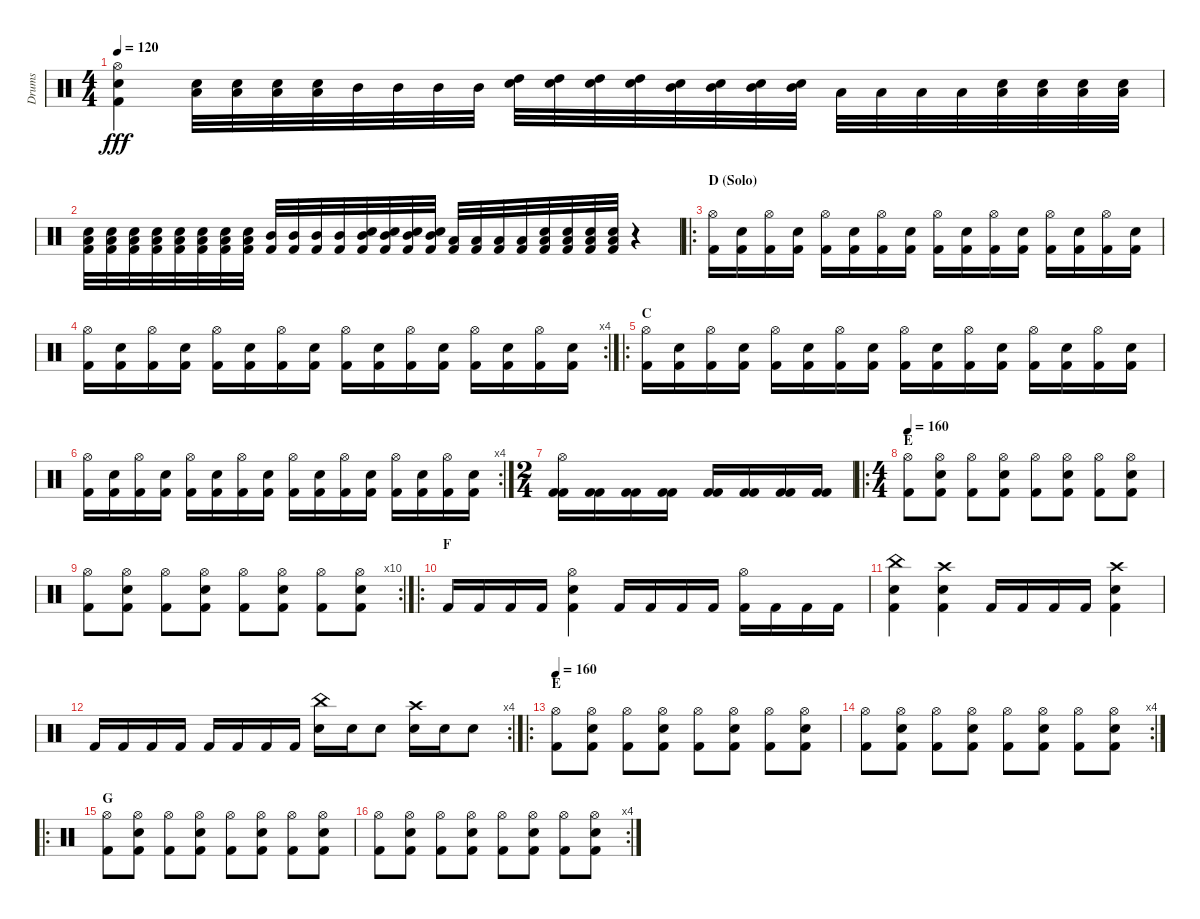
\track ("Drums" "Drums") {instrument percussion}
\staff {score}
\articulation defaults
\ts (4 4)
\tempo 120
\clef neutral
\ks c
("Hi-Hat (open)" "Electric Snare (hit)" "Kick (hit) 2").4{dy fff} ("Low Tom (hit)" "Electric Snare (hit)").32 ("Low Tom (hit)" "Electric Snare (hit)").32 ("Low Tom (hit)" "Electric Snare (hit)").32 ("Low Tom (hit)" "Electric Snare (hit)").32 "Mid Tom (hit)".32 "Mid Tom (hit)".32 "Mid Tom (hit)".32 "Mid Tom (hit)".32 ("High Tom (hit)" "Electric Snare (hit)").32 ("High Tom (hit)" "Electric Snare (hit)").32 ("High Tom (hit)" "Electric Snare (hit)").32 ("High Tom (hit)" "Electric Snare (hit)").32 ("Mid Tom (hit)" "Electric Snare (hit)").32 ("Mid Tom (hit)" "Electric Snare (hit)").32 ("Mid Tom (hit)" "Electric Snare (hit)").32 ("Mid Tom (hit)" "Electric Snare (hit)").32 "Low Tom (hit)".32 "Low Tom (hit)".32 "Low Tom (hit)".32 "Low Tom (hit)".32 ("Low Tom (hit)" "Electric Snare (hit)").32 ("Low Tom (hit)" "Electric Snare (hit)").32 ("Low Tom (hit)" "Electric Snare (hit)").32 ("Low Tom (hit)" "Electric Snare (hit)").32 |
("Low Tom (hit)" "Electric Snare (hit)" "Kick (hit) 2").32 ("Low Tom (hit)" "Electric Snare (hit)" "Kick (hit) 2").32 ("Low Tom (hit)" "Electric Snare (hit)" "Kick (hit) 2").32 ("Low Tom (hit)" "Electric Snare (hit)" "Kick (hit) 2").32 ("Low Tom (hit)" "Electric Snare (hit)" "Kick (hit) 2").32 ("Low Tom (hit)" "Electric Snare (hit)" "Kick (hit) 2").32 ("Low Tom (hit)" "Electric Snare (hit)" "Kick (hit) 2").32 ("Low Tom (hit)" "Electric Snare (hit)" "Kick (hit) 2").32 ("Mid Tom (hit)" "Kick (hit) 2").32 ("Mid Tom (hit)" "Kick (hit) 2").32 ("Mid Tom (hit)" "Kick (hit) 2").32 ("Mid Tom (hit)" "Kick (hit) 2").32 ("Mid Tom (hit)" "Electric Snare (hit)" "Kick (hit) 2").32 ("Mid Tom (hit)" "Electric Snare (hit)" "Kick (hit) 2").32 ("Mid Tom (hit)" "Electric Snare (hit)" "Kick (hit) 2").32 ("Mid Tom (hit)" "Electric Snare (hit)" "Kick (hit) 2").32 ("Low Floor Tom (hit)" "Kick (hit) 2").32 ("Low Floor Tom (hit)" "Kick (hit) 2").32 ("Low Floor Tom (hit)" "Kick (hit) 2").32 ("Low Floor Tom (hit)" "Kick (hit) 2").32 ("Low Floor Tom (hit)" "Electric Snare (hit)" "Kick (hit) 2").32 ("Low Floor Tom (hit)" "Electric Snare (hit)" "Kick (hit) 2").32 ("Low Floor Tom (hit)" "Electric Snare (hit)" "Kick (hit) 2").32 ("Low Floor Tom (hit)" "Electric Snare (hit)" "Kick (hit) 2").32 r.4 |
\ro
\section ("" "D (Solo)")
("Hi-Hat (open)" "Kick (hit) 2").16 ("Electric Snare (hit)" "Kick (hit) 2").16 ("Hi-Hat (open)" "Kick (hit) 2").16 ("Electric Snare (hit)" "Kick (hit) 2").16 ("Hi-Hat (open)" "Kick (hit) 2").16 ("Electric Snare (hit)" "Kick (hit) 2").16 ("Hi-Hat (open)" "Kick (hit) 2").16 ("Electric Snare (hit)" "Kick (hit) 2").16 ("Hi-Hat (open)" "Kick (hit) 2").16 ("Electric Snare (hit)" "Kick (hit) 2").16 ("Hi-Hat (open)" "Kick (hit) 2").16 ("Electric Snare (hit)" "Kick (hit) 2").16 ("Hi-Hat (open)" "Kick (hit) 2").16 ("Electric Snare (hit)" "Kick (hit) 2").16 ("Hi-Hat (open)" "Kick (hit) 2").16 ("Electric Snare (hit)" "Kick (hit) 2").16 |
\rc 4
("Hi-Hat (open)" "Kick (hit) 2").16 ("Electric Snare (hit)" "Kick (hit) 2").16 ("Hi-Hat (open)" "Kick (hit) 2").16 ("Electric Snare (hit)" "Kick (hit) 2").16 ("Hi-Hat (open)" "Kick (hit) 2").16 ("Electric Snare (hit)" "Kick (hit) 2").16 ("Hi-Hat (open)" "Kick (hit) 2").16 ("Electric Snare (hit)" "Kick (hit) 2").16 ("Hi-Hat (open)" "Kick (hit) 2").16 ("Electric Snare (hit)" "Kick (hit) 2").16 ("Hi-Hat (open)" "Kick (hit) 2").16 ("Electric Snare (hit)" "Kick (hit) 2").16 ("Hi-Hat (open)" "Kick (hit) 2").16 ("Electric Snare (hit)" "Kick (hit) 2").16 ("Hi-Hat (open)" "Kick (hit) 2").16 ("Electric Snare (hit)" "Kick (hit) 2").16 |
\ro
\section ("" "C")
("Hi-Hat (open)" "Kick (hit) 2").16 ("Electric Snare (hit)" "Kick (hit) 2").16 ("Hi-Hat (open)" "Kick (hit) 2").16 ("Electric Snare (hit)" "Kick (hit) 2").16 ("Hi-Hat (open)" "Kick (hit) 2").16 ("Electric Snare (hit)" "Kick (hit) 2").16 ("Hi-Hat (open)" "Kick (hit) 2").16 ("Electric Snare (hit)" "Kick (hit) 2").16 ("Hi-Hat (open)" "Kick (hit) 2").16 ("Electric Snare (hit)" "Kick (hit) 2").16 ("Hi-Hat (open)" "Kick (hit) 2").16 ("Electric Snare (hit)" "Kick (hit) 2").16 ("Hi-Hat (open)" "Kick (hit) 2").16 ("Electric Snare (hit)" "Kick (hit) 2").16 ("Hi-Hat (open)" "Kick (hit) 2").16 ("Electric Snare (hit)" "Kick (hit) 2").16 |
\rc 4
("Hi-Hat (open)" "Kick (hit) 2").16 ("Electric Snare (hit)" "Kick (hit) 2").16 ("Hi-Hat (open)" "Kick (hit) 2").16 ("Electric Snare (hit)" "Kick (hit) 2").16 ("Hi-Hat (open)" "Kick (hit) 2").16 ("Electric Snare (hit)" "Kick (hit) 2").16 ("Hi-Hat (open)" "Kick (hit) 2").16 ("Electric Snare (hit)" "Kick (hit) 2").16 ("Hi-Hat (open)" "Kick (hit) 2").16 ("Electric Snare (hit)" "Kick (hit) 2").16 ("Hi-Hat (open)" "Kick (hit) 2").16 ("Electric Snare (hit)" "Kick (hit) 2").16 ("Hi-Hat (open)" "Kick (hit) 2").16 ("Electric Snare (hit)" "Kick (hit) 2").16 ("Hi-Hat (open)" "Kick (hit) 2").16 ("Electric Snare (hit)" "Kick (hit) 2").16 |
\ts (2 4)
("Hi-Hat (open)" "Kick (hit) 2" "Kick (hit) 2").16 ("Kick (hit) 2" "Kick (hit) 2").16 ("Kick (hit) 2" "Kick (hit) 2").16 ("Kick (hit) 2" "Kick (hit) 2").16 ("Kick (hit) 2" "Kick (hit) 2").16 ("Kick (hit) 2" "Kick (hit) 2").16 ("Kick (hit) 2" "Kick (hit) 2").16 ("Kick (hit) 2" "Kick (hit) 2").16 |
\ro
\ts (4 4)
\section ("" "E")
\tempo 160
("Hi-Hat (open)" "Kick (hit) 2").8 ("Hi-Hat (open)" "Electric Snare (hit)" "Kick (hit) 2").8 ("Hi-Hat (open)" "Kick (hit) 2").8 ("Hi-Hat (open)" "Electric Snare (hit)" "Kick (hit) 2").8 ("Hi-Hat (open)" "Kick (hit) 2").8 ("Hi-Hat (open)" "Electric Snare (hit)" "Kick (hit) 2").8 ("Hi-Hat (open)" "Kick (hit) 2").8 ("Hi-Hat (open)" "Electric Snare (hit)" "Kick (hit) 2").8 |
\rc 10
("Hi-Hat (open)" "Kick (hit) 2").8 ("Hi-Hat (open)" "Electric Snare (hit)" "Kick (hit) 2").8 ("Hi-Hat (open)" "Kick (hit) 2").8 ("Hi-Hat (open)" "Electric Snare (hit)" "Kick (hit) 2").8 ("Hi-Hat (open)" "Kick (hit) 2").8 ("Hi-Hat (open)" "Electric Snare (hit)" "Kick (hit) 2").8 ("Hi-Hat (open)" "Kick (hit) 2").8 ("Hi-Hat (open)" "Electric Snare (hit)" "Kick (hit) 2").8 |
\ro
\section ("" "F")
"Kick (hit) 2".16 "Kick (hit) 2".16 "Kick (hit) 2".16 "Kick (hit) 2".16 ("Electric Snare (hit)" "Hi-Hat (open)" "Kick (hit) 2").4 "Kick (hit) 2".16 "Kick (hit) 2".16 "Kick (hit) 2".16 "Kick (hit) 2".16 ("Hi-Hat (open)" "Kick (hit) 2").16 "Kick (hit) 2".16 "Kick (hit) 2".16 "Kick (hit) 2".16 |
("Electric Snare (hit)" "China (hit)" "Kick (hit) 2").4 ("Electric Snare (hit)" "Crash high (hit)" "Kick (hit) 2").4 "Kick (hit) 2".16 "Kick (hit) 2".16 "Kick (hit) 2".16 "Kick (hit) 2".16 ("Electric Snare (hit)" "Crash high (hit)" "Kick (hit) 2").4 |
\rc 4 "Kick (hit) 2".16 "Kick (hit) 2".16 "Kick (hit) 2".16 "Kick (hit) 2".16 "Kick (hit) 2".16 "Kick (hit) 2".16 "Kick (hit) 2".16 "Kick (hit) 2".16
("China (hit)" "Electric Snare (hit)").16 "Electric Snare (hit)".16 "Electric Snare (hit)".8 ("Crash high (hit)" "Electric Snare (hit)").16 "Electric Snare (hit)".16 "Electric Snare (hit)".8 |
\ro
\section ("" "E")
\tempo 160
("Hi-Hat (open)" "Kick (hit) 2").8 ("Hi-Hat (open)" "Electric Snare (hit)" "Kick (hit) 2").8 ("Hi-Hat (open)" "Kick (hit) 2").8 ("Hi-Hat (open)" "Electric Snare (hit)" "Kick (hit) 2").8 ("Hi-Hat (open)" "Kick (hit) 2").8 ("Hi-Hat (open)" "Electric Snare (hit)" "Kick (hit) 2").8 ("Hi-Hat (open)" "Kick (hit) 2").8 ("Hi-Hat (open)" "Electric Snare (hit)" "Kick (hit) 2").8 |
\rc 4
("Hi-Hat (open)" "Kick (hit) 2").8 ("Hi-Hat (open)" "Electric Snare (hit)" "Kick (hit) 2").8 ("Hi-Hat (open)" "Kick (hit) 2").8 ("Hi-Hat (open)" "Electric Snare (hit)" "Kick (hit) 2").8 ("Hi-Hat (open)" "Kick (hit) 2").8 ("Hi-Hat (open)" "Electric Snare (hit)" "Kick (hit) 2").8 ("Hi-Hat (open)" "Kick (hit) 2").8 ("Hi-Hat (open)" "Electric Snare (hit)" "Kick (hit) 2").8 |
\ro
\section ("" "G")
("Hi-Hat (open)" "Kick (hit) 2").8 ("Hi-Hat (open)" "Electric Snare (hit)" "Kick (hit) 2").8 ("Hi-Hat (open)" "Kick (hit) 2").8 ("Hi-Hat (open)" "Electric Snare (hit)" "Kick (hit) 2").8 ("Hi-Hat (open)" "Kick (hit) 2").8 ("Hi-Hat (open)" "Electric Snare (hit)" "Kick (hit) 2").8 ("Hi-Hat (open)" "Kick (hit) 2").8 ("Hi-Hat (open)" "Electric Snare (hit)" "Kick (hit) 2").8 |
\rc 4
("Hi-Hat (open)" "Kick (hit) 2").8 ("Hi-Hat (open)" "Electric Snare (hit)" "Kick (hit) 2").8 ("Hi-Hat (open)" "Kick (hit) 2").8 ("Hi-Hat (open)" "Electric Snare (hit)" "Kick (hit) 2").8 ("Hi-Hat (open)" "Kick (hit) 2").8 ("Hi-Hat (open)" "Electric Snare (hit)" "Kick (hit) 2").8 ("Hi-Hat (open)" "Kick (hit) 2").8 ("Hi-Hat (open)" "Electric Snare (hit)" "Kick (hit) 2").8
